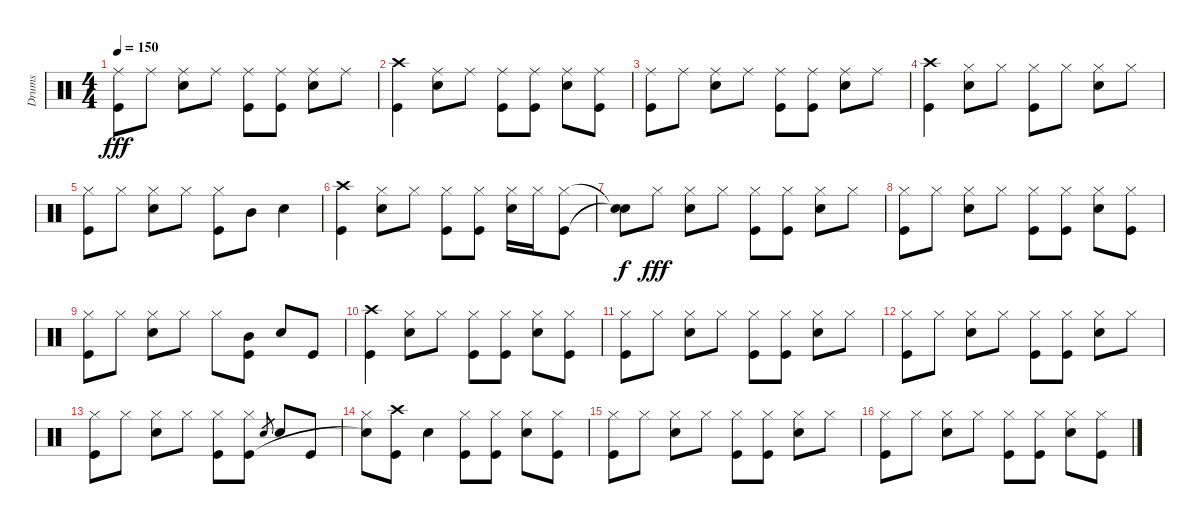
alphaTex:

\track ("Drums" "Drums") {instrument percussion}
\staff {score}
\articulation defaults
\ts (4 4)
\tempo 150
\clef neutral
\ks c
("Ride (middle)" "Kick (hit)").8{dy fff} "Ride (middle)".8 ("Ride (middle)" "Snare (hit) 2").8 "Ride (middle)".8 ("Ride (middle)" "Kick (hit)").8 ("Ride (middle)" "Kick (hit)").8 ("Ride (middle)" "Snare (hit) 2").8 "Ride (middle)".8 |
("Crash high (hit)" "Kick (hit)").4 ("Ride (middle)" "Snare (hit) 2").8 "Ride (middle)".8 ("Ride (middle)" "Kick (hit)").8 ("Ride (middle)" "Kick (hit)").8 ("Ride (middle)" "Snare (hit) 2").8 ("Ride (middle)" "Kick (hit)").8 |
("Ride (middle)" "Kick (hit)").8 "Ride (middle)".8 ("Ride (middle)" "Snare (hit) 2").8 "Ride (middle)".8 ("Ride (middle)" "Kick (hit)").8 ("Ride (middle)" "Kick (hit)").8 ("Ride (middle)" "Snare (hit) 2").8 "Ride (middle)".8 |
("Crash high (hit)" "Kick (hit)").4 ("Hi-Hat (closed)" "Snare (hit) 2").8 "Hi-Hat (closed)".8 ("Hi-Hat (closed)" "Kick (hit)").8 "Hi-Hat (closed)".8 ("Hi-Hat (closed)" "Snare (hit) 2").8 "Hi-Hat (closed)".8 |
("Hi-Hat (closed)" "Kick (hit)").8 "Hi-Hat (closed)".8 ("Hi-Hat (closed)" "Snare (hit) 2").8 "Hi-Hat (closed)".8 ("Hi-Hat (closed)" "Kick (hit)").8 "Mid Tom (hit)".8 "Snare (hit) 2".4 |
("Crash high (hit)" "Kick (hit)").4 ("Hi-Hat (closed)" "Snare (hit) 2").8 "Hi-Hat (closed)".8 ("Hi-Hat (closed)" "Kick (hit)").8 ("Hi-Hat (closed)" "Kick (hit)").8 ("Hi-Hat (closed)" "Snare (hit) 2").16 "Hi-Hat (closed)".16 ("Hi-Hat (closed)" "Kick (hit)").8 |
("Snare (hit)"{t} "Snare (hit)"{t}).8{dy f} "Hi-Hat (closed)".8{dy fff} ("Hi-Hat (closed)" "Snare (hit) 2").8 "Hi-Hat (closed)".8 ("Hi-Hat (closed)" "Kick (hit)").8 ("Hi-Hat (closed)" "Kick (hit)").8 ("Hi-Hat (closed)" "Snare (hit) 2").8 "Hi-Hat (closed)".8 |
("Hi-Hat (closed)" "Kick (hit)").8 "Hi-Hat (closed)".8 ("Hi-Hat (closed)" "Snare (hit) 2").8 "Hi-Hat (closed)".8 ("Hi-Hat (closed)" "Kick (hit)").8 ("Hi-Hat (closed)" "Kick (hit)").8 ("Hi-Hat (closed)" "Snare (hit) 2").8 ("Hi-Hat (closed)" "Kick (hit)").8 |
("Hi-Hat (closed)" "Kick (hit)").8 "Hi-Hat (closed)".8 ("Hi-Hat (closed)" "Snare (hit) 2").8 "Hi-Hat (closed)".8 "Hi-Hat (closed)".8 ("Mid Tom (hit)" "Kick (hit)").8 "Snare (hit) 2".8 "Kick (hit)".8 |
("Crash high (hit)" "Kick (hit)").4 ("Hi-Hat (closed)" "Snare (hit) 2").8 "Hi-Hat (closed)".8 ("Hi-Hat (closed)" "Kick (hit)").8 ("Hi-Hat (closed)" "Kick (hit)").8 ("Hi-Hat (closed)" "Snare (hit) 2").8 ("Hi-Hat (closed)" "Kick (hit)").8 |
("Hi-Hat (closed)" "Kick (hit)").8 "Hi-Hat (closed)".8 ("Hi-Hat (closed)" "Snare (hit) 2").8 "Hi-Hat (closed)".8 ("Hi-Hat (closed)" "Kick (hit)").8 ("Hi-Hat (closed)" "Kick (hit)").8 ("Hi-Hat (closed)" "Snare (hit) 2").8 "Hi-Hat (closed)".8 |
("Hi-Hat (closed)" "Kick (hit)").8 "Hi-Hat (closed)".8 ("Hi-Hat (closed)" "Snare (hit) 2").8 "Hi-Hat (closed)".8 ("Hi-Hat (closed)" "Kick (hit)").8 ("Hi-Hat (closed)" "Kick (hit)").8 ("Hi-Hat (closed)" "Snare (hit) 2").8 "Hi-Hat (closed)".8 |
("Hi-Hat (closed)" "Kick (hit)").8 "Hi-Hat (closed)".8 ("Hi-Hat (closed)" "Snare (hit) 2").8 "Hi-Hat (closed)".8 ("Hi-Hat (closed)" "Kick (hit)").8 ("Hi-Hat (closed)" "Kick (hit)").8 "Snare (hit) 2".8{gr} "Snare (hit) 2".8 "Kick (hit)".8 |
("Hi-Hat (closed)" "Snare (hit)"{t}).8 ("Crash high (hit)" "Kick (hit)").8 "Snare (hit) 2".4 ("Hi-Hat (closed)" "Kick (hit)").8 ("Hi-Hat (closed)" "Kick (hit)").8 ("Hi-Hat (closed)" "Snare (hit) 2").8 ("Hi-Hat (closed)" "Kick (hit)").8 |
("Hi-Hat (closed)" "Kick (hit)").8 "Hi-Hat (closed)".8 ("Hi-Hat (closed)" "Snare (hit) 2").8 "Hi-Hat (closed)".8 ("Hi-Hat (closed)" "Kick (hit)").8 ("Hi-Hat (closed)" "Kick (hit)").8 ("Hi-Hat (closed)" "Snare (hit) 2").8 "Hi-Hat (closed)".8 |
("Hi-Hat (closed)" "Kick (hit)").8 "Hi-Hat (closed)".8 ("Hi-Hat (closed)" "Snare (hit) 2").8 "Hi-Hat (closed)".8 ("Hi-Hat (closed)" "Kick (hit)").8 ("Hi-Hat (closed)" "Kick (hit)").8 ("Hi-Hat (closed)" "Snare (hit) 2").8 ("Hi-Hat (closed)" "Kick (hit)").8
